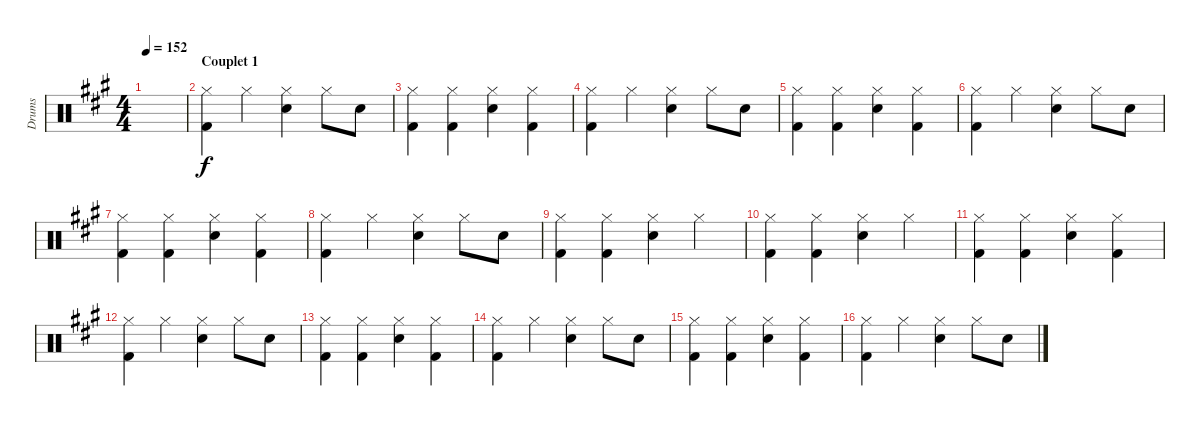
\track ("Drums" "Drums") {instrument percussion}
\staff {score}
\articulation defaults
\ts (4 4)
\tempo 152
\clef neutral
\ks a
|
\section ("" "Couplet 1")
("Hi-Hat (closed)" "Kick (hit) 2").4 "Hi-Hat (closed)".4 ("Hi-Hat (closed)" "Electric Snare (hit)").4 "Hi-Hat (closed)".8 "Electric Snare (hit)".8 |
("Hi-Hat (closed)" "Kick (hit) 2").4 ("Hi-Hat (closed)" "Kick (hit) 2").4 ("Hi-Hat (closed)" "Electric Snare (hit)").4 ("Hi-Hat (closed)" "Kick (hit) 2").4 |
("Hi-Hat (closed)" "Kick (hit) 2").4 "Hi-Hat (closed)".4 ("Hi-Hat (closed)" "Electric Snare (hit)").4 "Hi-Hat (closed)".8 "Electric Snare (hit)".8 |
("Hi-Hat (closed)" "Kick (hit) 2").4 ("Hi-Hat (closed)" "Kick (hit) 2").4 ("Hi-Hat (closed)" "Electric Snare (hit)").4 ("Hi-Hat (closed)" "Kick (hit) 2").4 |
("Hi-Hat (closed)" "Kick (hit) 2").4 "Hi-Hat (closed)".4 ("Hi-Hat (closed)" "Electric Snare (hit)").4 "Hi-Hat (closed)".8 "Electric Snare (hit)".8 |
("Hi-Hat (closed)" "Kick (hit) 2").4 ("Hi-Hat (closed)" "Kick (hit) 2").4 ("Hi-Hat (closed)" "Electric Snare (hit)").4 ("Hi-Hat (closed)" "Kick (hit) 2").4 |
("Hi-Hat (closed)" "Kick (hit) 2").4 "Hi-Hat (closed)".4 ("Hi-Hat (closed)" "Electric Snare (hit)").4 "Hi-Hat (closed)".8 "Electric Snare (hit)".8 |
("Hi-Hat (closed)" "Kick (hit) 2").4 ("Hi-Hat (closed)" "Kick (hit) 2").4 ("Hi-Hat (closed)" "Electric Snare (hit)").4 "Hi-Hat (closed)".4 |
("Hi-Hat (closed)" "Kick (hit) 2").4 ("Hi-Hat (closed)" "Kick (hit) 2").4 ("Hi-Hat (closed)" "Electric Snare (hit)").4 "Hi-Hat (closed)".4 |
("Hi-Hat (closed)" "Kick (hit) 2").4 ("Hi-Hat (closed)" "Kick (hit) 2").4 ("Hi-Hat (closed)" "Electric Snare (hit)").4 ("Hi-Hat (closed)" "Kick (hit) 2").4 |
("Hi-Hat (closed)" "Kick (hit) 2").4 "Hi-Hat (closed)".4 ("Hi-Hat (closed)" "Electric Snare (hit)").4 "Hi-Hat (closed)".8 "Electric Snare (hit)".8 |
("Hi-Hat (closed)" "Kick (hit) 2").4 ("Hi-Hat (closed)" "Kick (hit) 2").4 ("Hi-Hat (closed)" "Electric Snare (hit)").4 ("Hi-Hat (closed)" "Kick (hit) 2").4 |
("Hi-Hat (closed)" "Kick (hit) 2").4 "Hi-Hat (closed)".4 ("Hi-Hat (closed)" "Electric Snare (hit)").4 "Hi-Hat (closed)".8 "Electric Snare (hit)".8 |
("Hi-Hat (closed)" "Kick (hit) 2").4 ("Hi-Hat (closed)" "Kick (hit) 2").4 ("Hi-Hat (closed)" "Electric Snare (hit)").4 ("Hi-Hat (closed)" "Kick (hit) 2").4 |
("Hi-Hat (closed)" "Kick (hit) 2").4 "Hi-Hat (closed)".4 ("Hi-Hat (closed)" "Electric Snare (hit)").4 "Hi-Hat (closed)".8 "Electric Snare (hit)".8
